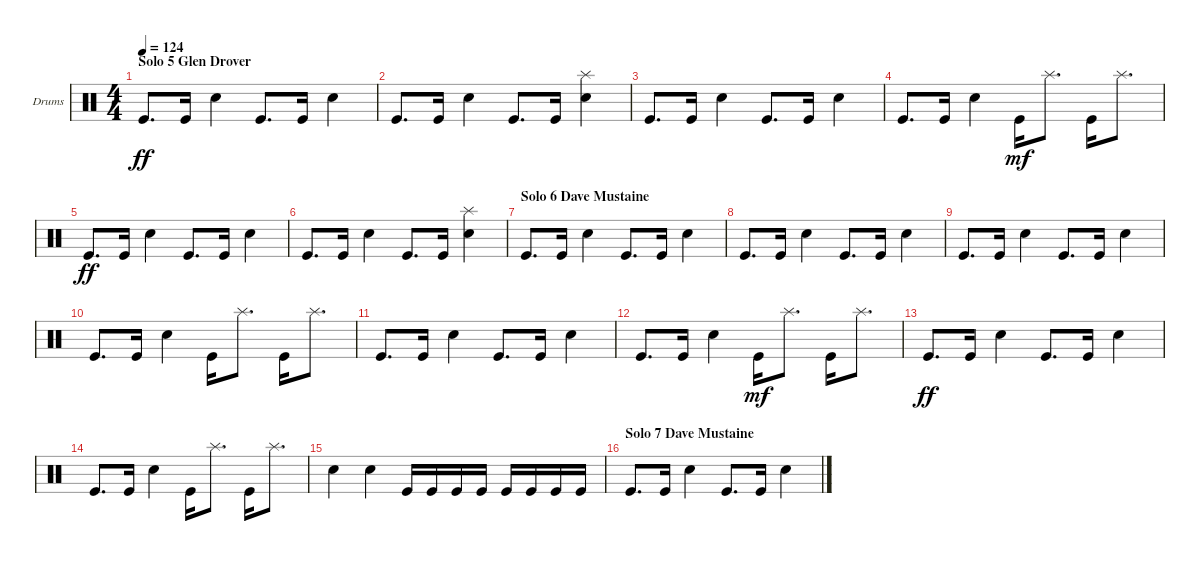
\defaultSystemsLayout 4
\bracketExtendMode groupsimilarinstruments
\firstSystemTrackNameOrientation horizontal
\otherSystemsTrackNameOrientation horizontal
\track ("Nick Menza" "Drums") {instrument percussion}
\staff {score}
\articulation defaults
\ts (4 4)
\section ("" "Solo 5 Glen Drover")
\tempo 124
\clef neutral
\scale
0.333333
\ks c "Kick (hit)".8{d dy ff} "Kick (hit)".16 "Snare (hit) 2".4 "Kick (hit)".8{d} "Kick (hit)".16 "Snare (hit) 2".4
|
\scale
0.333333 "Kick (hit)".8{d} "Kick (hit)".16 "Snare (hit) 2".4 "Kick (hit)".8{d} "Kick (hit)".16 ("Snare (hit) 2" "Splash (hit)").4 |
\scale
0.333333 "Kick (hit)".8{d} "Kick (hit)".16 "Snare (hit) 2".4 "Kick (hit)".8{d} "Kick (hit)".16 "Snare (hit) 2".4 |
\scale
0.333333 "Kick (hit)".8{d} "Kick (hit)".16 "Snare (hit) 2".4 "Kick (hit)".16{dy mf} "Splash (hit)".8{d} "Kick (hit)".16 "Splash (hit)".8{d} |
\scale
0.333333 "Kick (hit)".8{d dy ff} "Kick (hit)".16 "Snare (hit) 2".4 "Kick (hit)".8{d} "Kick (hit)".16 "Snare (hit) 2".4 |
\scale
0.333333 "Kick (hit)".8{d} "Kick (hit)".16 "Snare (hit) 2".4 "Kick (hit)".8{d} "Kick (hit)".16 ("Snare (hit) 2" "Splash (hit)").4 |
\section ("" "Solo 6 Dave Mustaine")
\scale
0.333333 "Kick (hit)".8{d} "Kick (hit)".16 "Snare (hit) 2".4 "Kick (hit)".8{d} "Kick (hit)".16 "Snare (hit) 2".4 |
\scale
0.333333 "Kick (hit)".8{d} "Kick (hit)".16 "Snare (hit) 2".4 "Kick (hit)".8{d} "Kick (hit)".16 "Snare (hit) 2".4 |
\scale
0.333333 "Kick (hit)".8{d} "Kick (hit)".16 "Snare (hit) 2".4 "Kick (hit)".8{d} "Kick (hit)".16 "Snare (hit) 2".4 |
\scale
0.333333 "Kick (hit)".8{d} "Kick (hit)".16 "Snare (hit) 2".4 "Kick (hit)".16 "Splash (hit)".8{d} "Kick (hit)".16 "Splash (hit)".8{d} |
\scale
0.333333 "Kick (hit)".8{d} "Kick (hit)".16 "Snare (hit) 2".4 "Kick (hit)".8{d} "Kick (hit)".16 "Snare (hit) 2".4 |
\scale
0.333333 "Kick (hit)".8{d} "Kick (hit)".16 "Snare (hit) 2".4 "Kick (hit)".16{dy mf} "Splash (hit)".8{d} "Kick (hit)".16 "Splash (hit)".8{d} |
\scale
0.333333 "Kick (hit)".8{d dy ff} "Kick (hit)".16 "Snare (hit) 2".4 "Kick (hit)".8{d} "Kick (hit)".16 "Snare (hit) 2".4 |
\scale
0.333333 "Kick (hit)".8{d} "Kick (hit)".16 "Snare (hit) 2".4 "Kick (hit)".16 "Splash (hit)".8{d} "Kick (hit)".16 "Splash (hit)".8{d} |
\scale
0.333333 "Snare (hit) 2".4 "Snare (hit) 2".4 "Kick (hit)".16 "Kick (hit)".16 "Kick (hit)".16 "Kick (hit)".16 "Kick (hit)".16 "Kick (hit)".16 "Kick (hit)".16 "Kick (hit)".16 |
\section ("" "Solo 7 Dave Mustaine")
\scale
0.333333 "Kick (hit)".8{d} "Kick (hit)".16 "Snare (hit) 2".4 "Kick (hit)".8{d} "Kick (hit)".16 "Snare (hit) 2".4
